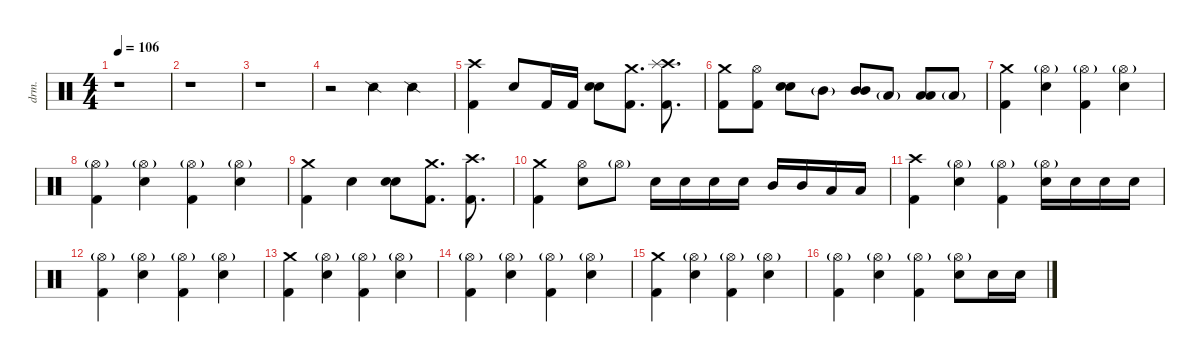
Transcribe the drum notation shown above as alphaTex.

\defaultSystemsLayout 4
\hideDynamics
\bracketExtendMode nobrackets
\track ("Lee Kerslake" "drm.") {solo instrument percussion}
\staff {score}
\articulation defaults
\ts (4 4)
\tempo 106
\clef neutral
\ks c
r.1{dy f} |
r.1 |
r.1 |
r.2 "Snare (side stick) 2".4 "Snare (side stick) 2".4 |
("Crash high (hit)" "Kick (hit) 2").4 "Snare (hit) 2".8 "Kick (hit) 2".16 "Kick (hit) 2".16 ("Snare (hit) 2" "Snare (hit) 2").8 ("Crash medium (hit)" "Kick (hit) 2").8{d} ("Crash high (hit)" "Splash (hit)" "Kick (hit) 2").8{d} |
("Crash medium (hit)" "Kick (hit) 2").8 ("Hi-Hat (open)" "Kick (hit) 2").8 ("Snare (hit) 2" "Snare (hit) 2").8 "Mid Tom (hit)"{g}.8 ("Mid Tom (hit)" "Mid Tom (hit)").8 "Low Tom (hit)"{g}.8 ("Low Tom (hit)" "Low Tom (hit)").8 "Low Tom (hit)"{g}.8 |
("Crash medium (hit)" "Kick (hit) 2").4 ("Hi-Hat (open)"{g} "Snare (hit) 2").4 ("Hi-Hat (open)"{g} "Kick (hit) 2").4 ("Hi-Hat (open)"{g} "Snare (hit) 2").4 |
("Hi-Hat (open)"{g} "Kick (hit) 2").4 ("Hi-Hat (open)"{g} "Snare (hit) 2").4 ("Hi-Hat (open)"{g} "Kick (hit) 2").4 ("Hi-Hat (open)"{g} "Snare (hit) 2").4 |
("Crash medium (hit)" "Kick (hit) 2").4 "Snare (hit) 2".4 ("Snare (hit) 2" "Snare (hit) 2").8 ("Crash medium (hit)" "Kick (hit) 2").8{d} ("Crash high (hit)" "Kick (hit) 2").8{d} |
("Crash medium (hit)" "Kick (hit) 2").4 ("Hi-Hat (open)" "Snare (hit) 2").8 "Hi-Hat (open)"{g}.8 "Snare (hit) 2".16 "Snare (hit) 2".16 "Snare (hit) 2".16 "Snare (hit) 2".16 "Mid Tom (hit)".16 "Mid Tom (hit)".16 "Low Tom (hit)".16 "Low Tom (hit)".16 |
("Crash high (hit)" "Kick (hit) 2").4 ("Hi-Hat (open)"{g} "Snare (hit) 2").4 ("Hi-Hat (open)"{g} "Kick (hit) 2").4 ("Hi-Hat (open)"{g} "Snare (hit) 2").16 "Snare (hit) 2".16 "Snare (hit) 2".16 "Snare (hit) 2".16 |
("Hi-Hat (open)"{g} "Kick (hit) 2").4 ("Hi-Hat (open)"{g} "Snare (hit) 2").4 ("Hi-Hat (open)"{g} "Kick (hit) 2").4 ("Hi-Hat (open)"{g} "Snare (hit) 2").4 |
("Crash medium (hit)" "Kick (hit) 2").4 ("Hi-Hat (open)"{g} "Snare (hit) 2").4 ("Hi-Hat (open)"{g} "Kick (hit) 2").4 ("Hi-Hat (open)"{g} "Snare (hit) 2").4 |
("Hi-Hat (open)"{g} "Kick (hit) 2").4 ("Hi-Hat (open)"{g} "Snare (hit) 2").4 ("Hi-Hat (open)"{g} "Kick (hit) 2").4 ("Hi-Hat (open)"{g} "Snare (hit) 2").4 |
("Crash medium (hit)" "Kick (hit) 2").4 ("Hi-Hat (open)"{g} "Snare (hit) 2").4 ("Hi-Hat (open)"{g} "Kick (hit) 2").4 ("Hi-Hat (open)"{g} "Snare (hit) 2").4 |
("Hi-Hat (open)"{g} "Kick (hit) 2").4 ("Hi-Hat (open)"{g} "Snare (hit) 2").4 ("Hi-Hat (open)"{g} "Kick (hit) 2").4 ("Hi-Hat (open)"{g} "Snare (hit) 2").8 "Snare (hit) 2".16 "Snare (hit) 2".16
